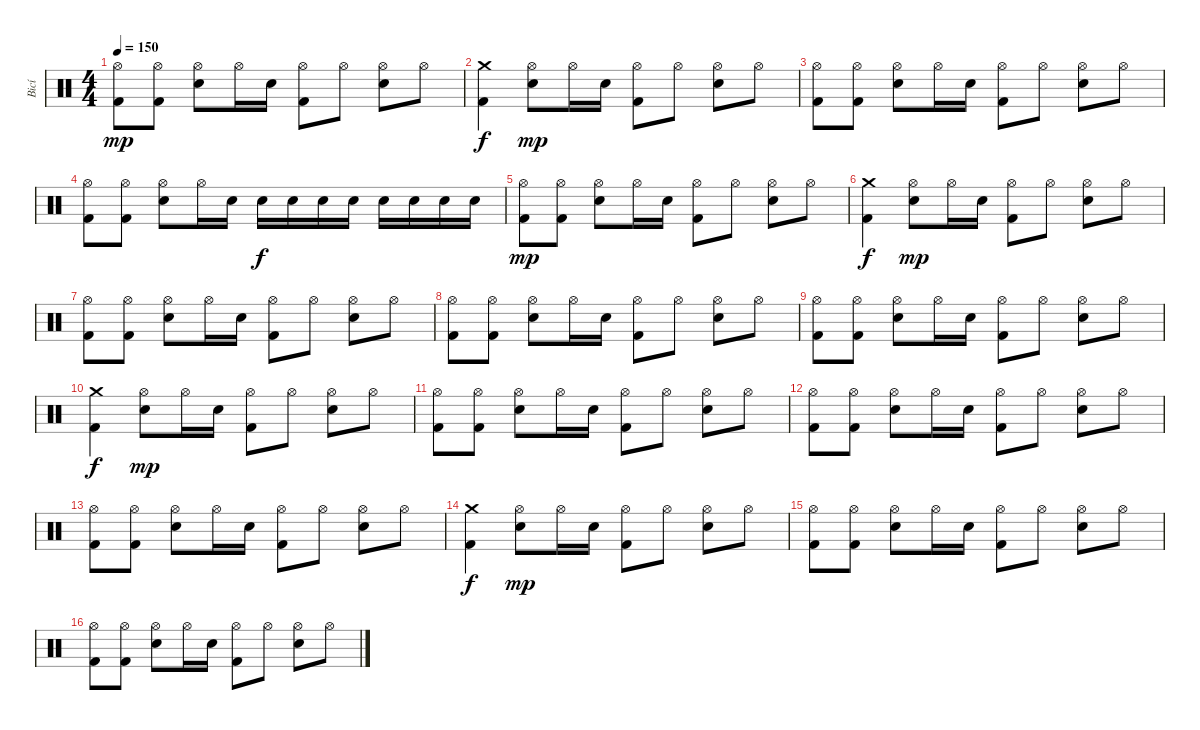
\track ("Bicí" "Bicí") {instrument percussion}
\staff {score}
\articulation defaults
\ts (4 4)
\tempo 150
\clef neutral
\ks c
("Hi-Hat (open)" "Kick (hit) 2").8{dy mp} ("Hi-Hat (open)" "Kick (hit) 2").8 ("Hi-Hat (open)" "Electric Snare (hit)").8 "Hi-Hat (open)".16 "Electric Snare (hit)".16 ("Hi-Hat (open)" "Kick (hit) 2").8 "Hi-Hat (open)".8 ("Hi-Hat (open)" "Electric Snare (hit)").8 "Hi-Hat (open)".8 |
("Crash medium (hit)" "Kick (hit) 2").4{dy f} ("Hi-Hat (open)" "Electric Snare (hit)").8{dy mp} "Hi-Hat (open)".16 "Electric Snare (hit)".16 ("Hi-Hat (open)" "Kick (hit) 2").8 "Hi-Hat (open)".8 ("Hi-Hat (open)" "Electric Snare (hit)").8 "Hi-Hat (open)".8 |
("Hi-Hat (open)" "Kick (hit) 2").8 ("Hi-Hat (open)" "Kick (hit) 2").8 ("Hi-Hat (open)" "Electric Snare (hit)").8 "Hi-Hat (open)".16 "Electric Snare (hit)".16 ("Hi-Hat (open)" "Kick (hit) 2").8 "Hi-Hat (open)".8 ("Hi-Hat (open)" "Electric Snare (hit)").8 "Hi-Hat (open)".8 |
("Hi-Hat (open)" "Kick (hit) 2").8 ("Hi-Hat (open)" "Kick (hit) 2").8 ("Hi-Hat (open)" "Electric Snare (hit)").8 "Hi-Hat (open)".16 "Electric Snare (hit)".16 "Snare (hit) 2".16{dy f} "Snare (hit) 2".16 "Snare (hit) 2".16 "Snare (hit) 2".16 "Snare (hit) 2".16 "Snare (hit) 2".16 "Snare (hit) 2".16 "Snare (hit) 2".16 |
("Hi-Hat (open)" "Kick (hit) 2").8{dy mp} ("Hi-Hat (open)" "Kick (hit) 2").8 ("Hi-Hat (open)" "Electric Snare (hit)").8 "Hi-Hat (open)".16 "Electric Snare (hit)".16 ("Hi-Hat (open)" "Kick (hit) 2").8 "Hi-Hat (open)".8 ("Hi-Hat (open)" "Electric Snare (hit)").8 "Hi-Hat (open)".8 |
("Crash medium (hit)" "Kick (hit) 2").4{dy f} ("Hi-Hat (open)" "Electric Snare (hit)").8{dy mp} "Hi-Hat (open)".16 "Electric Snare (hit)".16 ("Hi-Hat (open)" "Kick (hit) 2").8 "Hi-Hat (open)".8 ("Hi-Hat (open)" "Electric Snare (hit)").8 "Hi-Hat (open)".8 |
("Hi-Hat (open)" "Kick (hit) 2").8 ("Hi-Hat (open)" "Kick (hit) 2").8 ("Hi-Hat (open)" "Electric Snare (hit)").8 "Hi-Hat (open)".16 "Electric Snare (hit)".16 ("Hi-Hat (open)" "Kick (hit) 2").8 "Hi-Hat (open)".8 ("Hi-Hat (open)" "Electric Snare (hit)").8 "Hi-Hat (open)".8 |
("Hi-Hat (open)" "Kick (hit) 2").8 ("Hi-Hat (open)" "Kick (hit) 2").8 ("Hi-Hat (open)" "Electric Snare (hit)").8 "Hi-Hat (open)".16 "Electric Snare (hit)".16 ("Hi-Hat (open)" "Kick (hit) 2").8 "Hi-Hat (open)".8 ("Hi-Hat (open)" "Electric Snare (hit)").8 "Hi-Hat (open)".8 |
("Hi-Hat (open)" "Kick (hit) 2").8 ("Hi-Hat (open)" "Kick (hit) 2").8 ("Hi-Hat (open)" "Electric Snare (hit)").8 "Hi-Hat (open)".16 "Electric Snare (hit)".16 ("Hi-Hat (open)" "Kick (hit) 2").8 "Hi-Hat (open)".8 ("Hi-Hat (open)" "Electric Snare (hit)").8 "Hi-Hat (open)".8 |
("Crash medium (hit)" "Kick (hit) 2").4{dy f} ("Hi-Hat (open)" "Electric Snare (hit)").8{dy mp} "Hi-Hat (open)".16 "Electric Snare (hit)".16 ("Hi-Hat (open)" "Kick (hit) 2").8 "Hi-Hat (open)".8 ("Hi-Hat (open)" "Electric Snare (hit)").8 "Hi-Hat (open)".8 |
("Hi-Hat (open)" "Kick (hit) 2").8 ("Hi-Hat (open)" "Kick (hit) 2").8 ("Hi-Hat (open)" "Electric Snare (hit)").8 "Hi-Hat (open)".16 "Electric Snare (hit)".16 ("Hi-Hat (open)" "Kick (hit) 2").8 "Hi-Hat (open)".8 ("Hi-Hat (open)" "Electric Snare (hit)").8 "Hi-Hat (open)".8 |
("Hi-Hat (open)" "Kick (hit) 2").8 ("Hi-Hat (open)" "Kick (hit) 2").8 ("Hi-Hat (open)" "Electric Snare (hit)").8 "Hi-Hat (open)".16 "Electric Snare (hit)".16 ("Hi-Hat (open)" "Kick (hit) 2").8 "Hi-Hat (open)".8 ("Hi-Hat (open)" "Electric Snare (hit)").8 "Hi-Hat (open)".8 |
("Hi-Hat (open)" "Kick (hit) 2").8 ("Hi-Hat (open)" "Kick (hit) 2").8 ("Hi-Hat (open)" "Electric Snare (hit)").8 "Hi-Hat (open)".16 "Electric Snare (hit)".16 ("Hi-Hat (open)" "Kick (hit) 2").8 "Hi-Hat (open)".8 ("Hi-Hat (open)" "Electric Snare (hit)").8 "Hi-Hat (open)".8 |
("Crash medium (hit)" "Kick (hit) 2").4{dy f} ("Hi-Hat (open)" "Electric Snare (hit)").8{dy mp} "Hi-Hat (open)".16 "Electric Snare (hit)".16 ("Hi-Hat (open)" "Kick (hit) 2").8 "Hi-Hat (open)".8 ("Hi-Hat (open)" "Electric Snare (hit)").8 "Hi-Hat (open)".8 |
("Hi-Hat (open)" "Kick (hit) 2").8 ("Hi-Hat (open)" "Kick (hit) 2").8 ("Hi-Hat (open)" "Electric Snare (hit)").8 "Hi-Hat (open)".16 "Electric Snare (hit)".16 ("Hi-Hat (open)" "Kick (hit) 2").8 "Hi-Hat (open)".8 ("Hi-Hat (open)" "Electric Snare (hit)").8 "Hi-Hat (open)".8 |
("Hi-Hat (open)" "Kick (hit) 2").8 ("Hi-Hat (open)" "Kick (hit) 2").8 ("Hi-Hat (open)" "Electric Snare (hit)").8 "Hi-Hat (open)".16 "Electric Snare (hit)".16 ("Hi-Hat (open)" "Kick (hit) 2").8 "Hi-Hat (open)".8 ("Hi-Hat (open)" "Electric Snare (hit)").8 "Hi-Hat (open)".8
